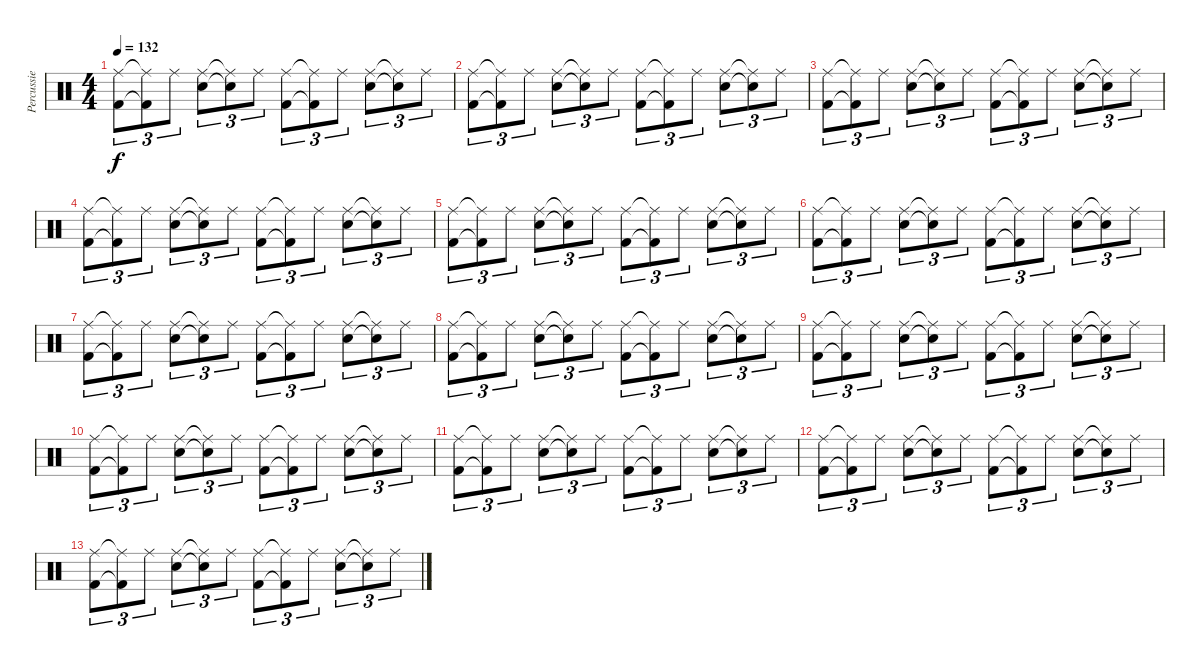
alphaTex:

\track ("Percussie" "Percussie") {instrument percussion}
\staff {score}
\articulation defaults
\ts (4 4)
\tempo 132
\clef neutral
\ks c
("Kick (hit) 2" "Ride (middle)").8{tu (3 2) dy f} ("Kick (hit) 2"{t} "Ride (middle)"{t}).8{tu (3 2)} "Ride (middle)".8{tu (3 2)} ("Electric Snare (hit)" "Ride (middle)").8{tu (3 2)} ("Electric Snare (hit)"{t} "Ride (middle)"{t}).8{tu (3 2)} "Ride (middle)".8{tu (3 2)} ("Kick (hit) 2" "Ride (middle)").8{tu (3 2)} ("Kick (hit) 2"{t} "Ride (middle)"{t}).8{tu (3 2)} "Ride (middle)".8{tu (3 2)} ("Electric Snare (hit)" "Ride (middle)").8{tu (3 2)} ("Electric Snare (hit)"{t} "Ride (middle)"{t}).8{tu (3 2)} "Ride (middle)".8{tu (3 2)} |
("Kick (hit) 2" "Ride (middle)").8{tu (3 2)} ("Kick (hit) 2"{t} "Ride (middle)"{t}).8{tu (3 2)} "Ride (middle)".8{tu (3 2)} ("Electric Snare (hit)" "Ride (middle)").8{tu (3 2)} ("Electric Snare (hit)"{t} "Ride (middle)"{t}).8{tu (3 2)} "Ride (middle)".8{tu (3 2)} ("Kick (hit) 2" "Ride (middle)").8{tu (3 2)} ("Kick (hit) 2"{t} "Ride (middle)"{t}).8{tu (3 2)} "Ride (middle)".8{tu (3 2)} ("Electric Snare (hit)" "Ride (middle)").8{tu (3 2)} ("Electric Snare (hit)"{t} "Ride (middle)"{t}).8{tu (3 2)} "Ride (middle)".8{tu (3 2)} |
("Kick (hit) 2" "Ride (middle)").8{tu (3 2)} ("Kick (hit) 2"{t} "Ride (middle)"{t}).8{tu (3 2)} "Ride (middle)".8{tu (3 2)} ("Electric Snare (hit)" "Ride (middle)").8{tu (3 2)} ("Electric Snare (hit)"{t} "Ride (middle)"{t}).8{tu (3 2)} "Ride (middle)".8{tu (3 2)} ("Kick (hit) 2" "Ride (middle)").8{tu (3 2)} ("Kick (hit) 2"{t} "Ride (middle)"{t}).8{tu (3 2)} "Ride (middle)".8{tu (3 2)} ("Electric Snare (hit)" "Ride (middle)").8{tu (3 2)} ("Electric Snare (hit)"{t} "Ride (middle)"{t}).8{tu (3 2)} "Ride (middle)".8{tu (3 2)} |
("Kick (hit) 2" "Ride (middle)").8{tu (3 2)} ("Kick (hit) 2"{t} "Ride (middle)"{t}).8{tu (3 2)} "Ride (middle)".8{tu (3 2)} ("Electric Snare (hit)" "Ride (middle)").8{tu (3 2)} ("Electric Snare (hit)"{t} "Ride (middle)"{t}).8{tu (3 2)} "Ride (middle)".8{tu (3 2)} ("Kick (hit) 2" "Ride (middle)").8{tu (3 2)} ("Kick (hit) 2"{t} "Ride (middle)"{t}).8{tu (3 2)} "Ride (middle)".8{tu (3 2)} ("Electric Snare (hit)" "Ride (middle)").8{tu (3 2)} ("Electric Snare (hit)"{t} "Ride (middle)"{t}).8{tu (3 2)} "Ride (middle)".8{tu (3 2)} |
("Kick (hit) 2" "Ride (middle)").8{tu (3 2)} ("Kick (hit) 2"{t} "Ride (middle)"{t}).8{tu (3 2)} "Ride (middle)".8{tu (3 2)} ("Electric Snare (hit)" "Ride (middle)").8{tu (3 2)} ("Electric Snare (hit)"{t} "Ride (middle)"{t}).8{tu (3 2)} "Ride (middle)".8{tu (3 2)} ("Kick (hit) 2" "Ride (middle)").8{tu (3 2)} ("Kick (hit) 2"{t} "Ride (middle)"{t}).8{tu (3 2)} "Ride (middle)".8{tu (3 2)} ("Electric Snare (hit)" "Ride (middle)").8{tu (3 2)} ("Electric Snare (hit)"{t} "Ride (middle)"{t}).8{tu (3 2)} "Ride (middle)".8{tu (3 2)} |
("Kick (hit) 2" "Ride (middle)").8{tu (3 2)} ("Kick (hit) 2"{t} "Ride (middle)"{t}).8{tu (3 2)} "Ride (middle)".8{tu (3 2)} ("Electric Snare (hit)" "Ride (middle)").8{tu (3 2)} ("Electric Snare (hit)"{t} "Ride (middle)"{t}).8{tu (3 2)} "Ride (middle)".8{tu (3 2)} ("Kick (hit) 2" "Ride (middle)").8{tu (3 2)} ("Kick (hit) 2"{t} "Ride (middle)"{t}).8{tu (3 2)} "Ride (middle)".8{tu (3 2)} ("Electric Snare (hit)" "Ride (middle)").8{tu (3 2)} ("Electric Snare (hit)"{t} "Ride (middle)"{t}).8{tu (3 2)} "Ride (middle)".8{tu (3 2)} |
("Kick (hit) 2" "Ride (middle)").8{tu (3 2)} ("Kick (hit) 2"{t} "Ride (middle)"{t}).8{tu (3 2)} "Ride (middle)".8{tu (3 2)} ("Electric Snare (hit)" "Ride (middle)").8{tu (3 2)} ("Electric Snare (hit)"{t} "Ride (middle)"{t}).8{tu (3 2)} "Ride (middle)".8{tu (3 2)} ("Kick (hit) 2" "Ride (middle)").8{tu (3 2)} ("Kick (hit) 2"{t} "Ride (middle)"{t}).8{tu (3 2)} "Ride (middle)".8{tu (3 2)} ("Electric Snare (hit)" "Ride (middle)").8{tu (3 2)} ("Electric Snare (hit)"{t} "Ride (middle)"{t}).8{tu (3 2)} "Ride (middle)".8{tu (3 2)} |
("Kick (hit) 2" "Ride (middle)").8{tu (3 2)} ("Kick (hit) 2"{t} "Ride (middle)"{t}).8{tu (3 2)} "Ride (middle)".8{tu (3 2)} ("Electric Snare (hit)" "Ride (middle)").8{tu (3 2)} ("Electric Snare (hit)"{t} "Ride (middle)"{t}).8{tu (3 2)} "Ride (middle)".8{tu (3 2)} ("Kick (hit) 2" "Ride (middle)").8{tu (3 2)} ("Kick (hit) 2"{t} "Ride (middle)"{t}).8{tu (3 2)} "Ride (middle)".8{tu (3 2)} ("Electric Snare (hit)" "Ride (middle)").8{tu (3 2)} ("Electric Snare (hit)"{t} "Ride (middle)"{t}).8{tu (3 2)} "Ride (middle)".8{tu (3 2)} |
("Kick (hit) 2" "Ride (middle)").8{tu (3 2)} ("Kick (hit) 2"{t} "Ride (middle)"{t}).8{tu (3 2)} "Ride (middle)".8{tu (3 2)} ("Electric Snare (hit)" "Ride (middle)").8{tu (3 2)} ("Electric Snare (hit)"{t} "Ride (middle)"{t}).8{tu (3 2)} "Ride (middle)".8{tu (3 2)} ("Kick (hit) 2" "Ride (middle)").8{tu (3 2)} ("Kick (hit) 2"{t} "Ride (middle)"{t}).8{tu (3 2)} "Ride (middle)".8{tu (3 2)} ("Electric Snare (hit)" "Ride (middle)").8{tu (3 2)} ("Electric Snare (hit)"{t} "Ride (middle)"{t}).8{tu (3 2)} "Ride (middle)".8{tu (3 2)} |
("Kick (hit) 2" "Ride (middle)").8{tu (3 2)} ("Kick (hit) 2"{t} "Ride (middle)"{t}).8{tu (3 2)} "Ride (middle)".8{tu (3 2)} ("Electric Snare (hit)" "Ride (middle)").8{tu (3 2)} ("Electric Snare (hit)"{t} "Ride (middle)"{t}).8{tu (3 2)} "Ride (middle)".8{tu (3 2)} ("Kick (hit) 2" "Ride (middle)").8{tu (3 2)} ("Kick (hit) 2"{t} "Ride (middle)"{t}).8{tu (3 2)} "Ride (middle)".8{tu (3 2)} ("Electric Snare (hit)" "Ride (middle)").8{tu (3 2)} ("Electric Snare (hit)"{t} "Ride (middle)"{t}).8{tu (3 2)} "Ride (middle)".8{tu (3 2)} |
("Kick (hit) 2" "Ride (middle)").8{tu (3 2)} ("Kick (hit) 2"{t} "Ride (middle)"{t}).8{tu (3 2)} "Ride (middle)".8{tu (3 2)} ("Electric Snare (hit)" "Ride (middle)").8{tu (3 2)} ("Electric Snare (hit)"{t} "Ride (middle)"{t}).8{tu (3 2)} "Ride (middle)".8{tu (3 2)} ("Kick (hit) 2" "Ride (middle)").8{tu (3 2)} ("Kick (hit) 2"{t} "Ride (middle)"{t}).8{tu (3 2)} "Ride (middle)".8{tu (3 2)} ("Electric Snare (hit)" "Ride (middle)").8{tu (3 2)} ("Electric Snare (hit)"{t} "Ride (middle)"{t}).8{tu (3 2)} "Ride (middle)".8{tu (3 2)} |
("Kick (hit) 2" "Ride (middle)").8{tu (3 2)} ("Kick (hit) 2"{t} "Ride (middle)"{t}).8{tu (3 2)} "Ride (middle)".8{tu (3 2)} ("Electric Snare (hit)" "Ride (middle)").8{tu (3 2)} ("Electric Snare (hit)"{t} "Ride (middle)"{t}).8{tu (3 2)} "Ride (middle)".8{tu (3 2)} ("Kick (hit) 2" "Ride (middle)").8{tu (3 2)} ("Kick (hit) 2"{t} "Ride (middle)"{t}).8{tu (3 2)} "Ride (middle)".8{tu (3 2)} ("Electric Snare (hit)" "Ride (middle)").8{tu (3 2)} ("Electric Snare (hit)"{t} "Ride (middle)"{t}).8{tu (3 2)} "Ride (middle)".8{tu (3 2)} |
("Kick (hit) 2" "Ride (middle)").8{tu (3 2)} ("Kick (hit) 2"{t} "Ride (middle)"{t}).8{tu (3 2)} "Ride (middle)".8{tu (3 2)} ("Electric Snare (hit)" "Ride (middle)").8{tu (3 2)} ("Electric Snare (hit)"{t} "Ride (middle)"{t}).8{tu (3 2)} "Ride (middle)".8{tu (3 2)} ("Kick (hit) 2" "Ride (middle)").8{tu (3 2)} ("Kick (hit) 2"{t} "Ride (middle)"{t}).8{tu (3 2)} "Ride (middle)".8{tu (3 2)} ("Electric Snare (hit)" "Ride (middle)").8{tu (3 2)} ("Electric Snare (hit)"{t} "Ride (middle)"{t}).8{tu (3 2)} "Ride (middle)".8{tu (3 2)}
